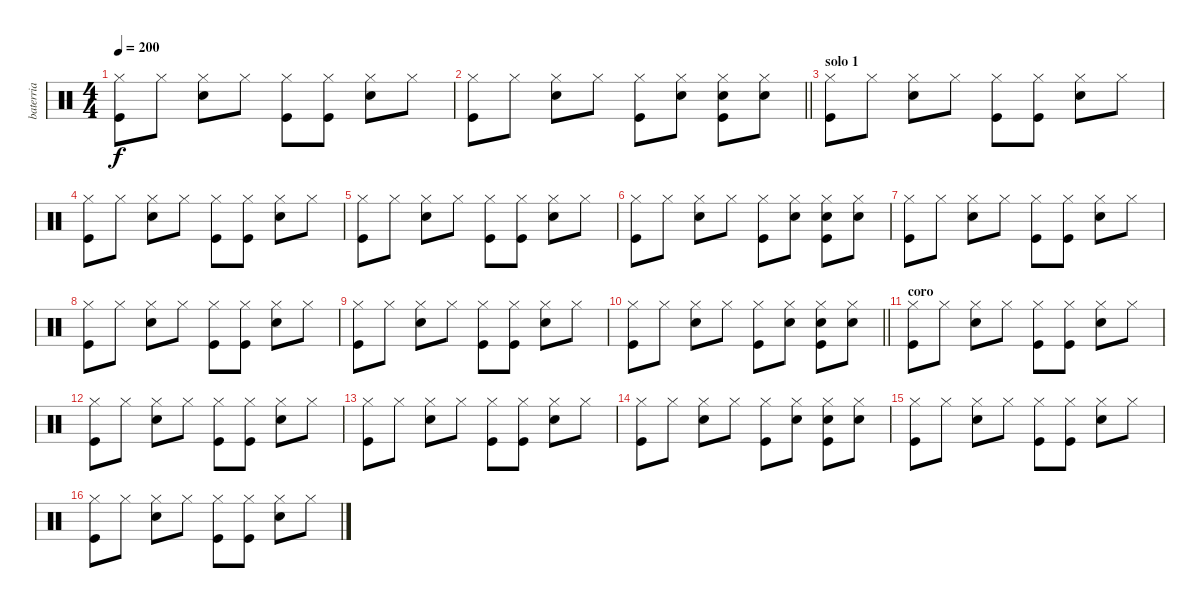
\track ("baterria" "baterria") {instrument percussion}
\staff {score}
\articulation defaults
\ts (4 4)
\tempo 200
\clef neutral
\ks c
("Hi-Hat (closed)" "Kick (hit)").8{dy f} "Hi-Hat (closed)".8 ("Hi-Hat (closed)" "Electric Snare (hit)").8 "Hi-Hat (closed)".8 ("Hi-Hat (closed)" "Kick (hit)").8 ("Hi-Hat (closed)" "Kick (hit)").8 ("Hi-Hat (closed)" "Electric Snare (hit)").8 "Hi-Hat (closed)".8 |
\barLineRight lightlight
("Hi-Hat (closed)" "Kick (hit)").8 "Hi-Hat (closed)".8 ("Hi-Hat (closed)" "Electric Snare (hit)").8 "Hi-Hat (closed)".8 ("Hi-Hat (closed)" "Kick (hit)").8 ("Hi-Hat (closed)" "Electric Snare (hit)").8 ("Hi-Hat (closed)" "Electric Snare (hit)" "Kick (hit)").8 ("Hi-Hat (closed)" "Electric Snare (hit)").8 |
\section ("" "solo 1")
("Hi-Hat (closed)" "Kick (hit)").8 "Hi-Hat (closed)".8 ("Hi-Hat (closed)" "Electric Snare (hit)").8 "Hi-Hat (closed)".8 ("Hi-Hat (closed)" "Kick (hit)").8 ("Hi-Hat (closed)" "Kick (hit)").8 ("Hi-Hat (closed)" "Electric Snare (hit)").8 "Hi-Hat (closed)".8 |
("Hi-Hat (closed)" "Kick (hit)").8 "Hi-Hat (closed)".8 ("Hi-Hat (closed)" "Electric Snare (hit)").8 "Hi-Hat (closed)".8 ("Hi-Hat (closed)" "Kick (hit)").8 ("Hi-Hat (closed)" "Kick (hit)").8 ("Hi-Hat (closed)" "Electric Snare (hit)").8 "Hi-Hat (closed)".8 |
("Hi-Hat (closed)" "Kick (hit)").8 "Hi-Hat (closed)".8 ("Hi-Hat (closed)" "Electric Snare (hit)").8 "Hi-Hat (closed)".8 ("Hi-Hat (closed)" "Kick (hit)").8 ("Hi-Hat (closed)" "Kick (hit)").8 ("Hi-Hat (closed)" "Electric Snare (hit)").8 "Hi-Hat (closed)".8 |
("Hi-Hat (closed)" "Kick (hit)").8 "Hi-Hat (closed)".8 ("Hi-Hat (closed)" "Electric Snare (hit)").8 "Hi-Hat (closed)".8 ("Hi-Hat (closed)" "Kick (hit)").8 ("Hi-Hat (closed)" "Electric Snare (hit)").8 ("Hi-Hat (closed)" "Electric Snare (hit)" "Kick (hit)").8 ("Hi-Hat (closed)" "Electric Snare (hit)").8 |
("Hi-Hat (closed)" "Kick (hit)").8 "Hi-Hat (closed)".8 ("Hi-Hat (closed)" "Electric Snare (hit)").8 "Hi-Hat (closed)".8 ("Hi-Hat (closed)" "Kick (hit)").8 ("Hi-Hat (closed)" "Kick (hit)").8 ("Hi-Hat (closed)" "Electric Snare (hit)").8 "Hi-Hat (closed)".8 |
("Hi-Hat (closed)" "Kick (hit)").8 "Hi-Hat (closed)".8 ("Hi-Hat (closed)" "Electric Snare (hit)").8 "Hi-Hat (closed)".8 ("Hi-Hat (closed)" "Kick (hit)").8 ("Hi-Hat (closed)" "Kick (hit)").8 ("Hi-Hat (closed)" "Electric Snare (hit)").8 "Hi-Hat (closed)".8 |
("Hi-Hat (closed)" "Kick (hit)").8 "Hi-Hat (closed)".8 ("Hi-Hat (closed)" "Electric Snare (hit)").8 "Hi-Hat (closed)".8 ("Hi-Hat (closed)" "Kick (hit)").8 ("Hi-Hat (closed)" "Kick (hit)").8 ("Hi-Hat (closed)" "Electric Snare (hit)").8 "Hi-Hat (closed)".8 |
\barLineRight lightlight
("Hi-Hat (closed)" "Kick (hit)").8 "Hi-Hat (closed)".8 ("Hi-Hat (closed)" "Electric Snare (hit)").8 "Hi-Hat (closed)".8 ("Hi-Hat (closed)" "Kick (hit)").8 ("Hi-Hat (closed)" "Electric Snare (hit)").8 ("Hi-Hat (closed)" "Electric Snare (hit)" "Kick (hit)").8 ("Hi-Hat (closed)" "Electric Snare (hit)").8 |
\section ("" "coro")
("Hi-Hat (closed)" "Kick (hit)").8 "Hi-Hat (closed)".8 ("Hi-Hat (closed)" "Electric Snare (hit)").8 "Hi-Hat (closed)".8 ("Hi-Hat (closed)" "Kick (hit)").8 ("Hi-Hat (closed)" "Kick (hit)").8 ("Hi-Hat (closed)" "Electric Snare (hit)").8 "Hi-Hat (closed)".8 |
("Hi-Hat (closed)" "Kick (hit)").8 "Hi-Hat (closed)".8 ("Hi-Hat (closed)" "Electric Snare (hit)").8 "Hi-Hat (closed)".8 ("Hi-Hat (closed)" "Kick (hit)").8 ("Hi-Hat (closed)" "Kick (hit)").8 ("Hi-Hat (closed)" "Electric Snare (hit)").8 "Hi-Hat (closed)".8 |
("Hi-Hat (closed)" "Kick (hit)").8 "Hi-Hat (closed)".8 ("Hi-Hat (closed)" "Electric Snare (hit)").8 "Hi-Hat (closed)".8 ("Hi-Hat (closed)" "Kick (hit)").8 ("Hi-Hat (closed)" "Kick (hit)").8 ("Hi-Hat (closed)" "Electric Snare (hit)").8 "Hi-Hat (closed)".8 |
("Hi-Hat (closed)" "Kick (hit)").8 "Hi-Hat (closed)".8 ("Hi-Hat (closed)" "Electric Snare (hit)").8 "Hi-Hat (closed)".8 ("Hi-Hat (closed)" "Kick (hit)").8 ("Hi-Hat (closed)" "Electric Snare (hit)").8 ("Hi-Hat (closed)" "Electric Snare (hit)" "Kick (hit)").8 ("Hi-Hat (closed)" "Electric Snare (hit)").8 |
("Hi-Hat (closed)" "Kick (hit)").8 "Hi-Hat (closed)".8 ("Hi-Hat (closed)" "Electric Snare (hit)").8 "Hi-Hat (closed)".8 ("Hi-Hat (closed)" "Kick (hit)").8 ("Hi-Hat (closed)" "Kick (hit)").8 ("Hi-Hat (closed)" "Electric Snare (hit)").8 "Hi-Hat (closed)".8 |
("Hi-Hat (closed)" "Kick (hit)").8 "Hi-Hat (closed)".8 ("Hi-Hat (closed)" "Electric Snare (hit)").8 "Hi-Hat (closed)".8 ("Hi-Hat (closed)" "Kick (hit)").8 ("Hi-Hat (closed)" "Kick (hit)").8 ("Hi-Hat (closed)" "Electric Snare (hit)").8 "Hi-Hat (closed)".8
